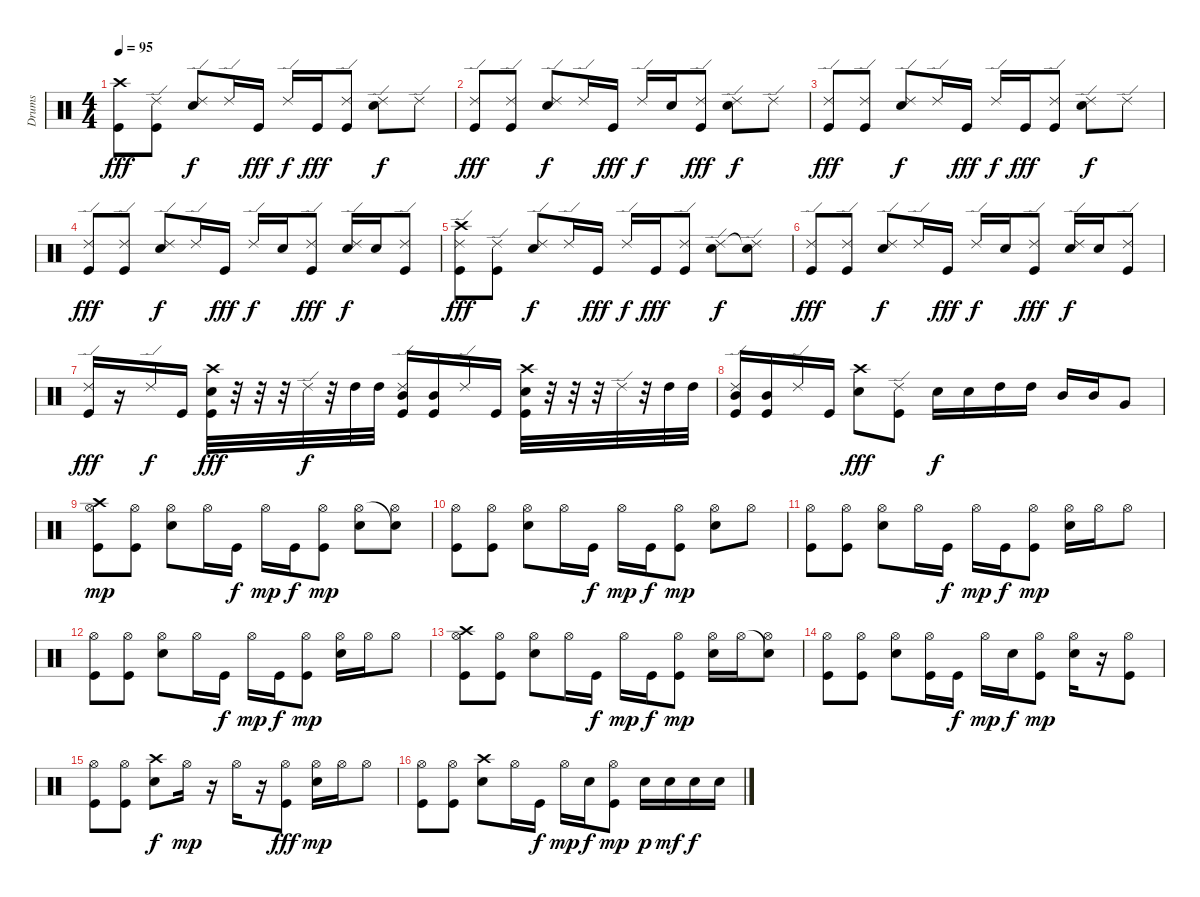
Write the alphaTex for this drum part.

\track ("Drums" "Drums") {instrument percussion}
\staff {score}
\articulation defaults
\ts (4 4)
\tempo 95
\clef neutral
\ks c
("Crash high (hit)" "Kick (hit)").8{dy fff} ("Ride (edge) 2" "Kick (hit)").8 ("Ride (edge) 2" "Electric Snare (hit)").8{dy f} "Ride (edge) 2".16 "Kick (hit)".16{dy fff} "Ride (edge) 2".16{dy f} "Kick (hit)".16{dy fff} ("Ride (edge) 2" "Kick (hit)").8 ("Ride (edge) 2" "Electric Snare (hit)").8{dy f} "Ride (edge) 2".8 |
("Ride (edge) 2" "Kick (hit)").8{dy fff} ("Ride (edge) 2" "Kick (hit)").8 ("Ride (edge) 2" "Electric Snare (hit)").8{dy f} "Ride (edge) 2".16 "Kick (hit)".16{dy fff} "Ride (edge) 2".16{dy f} "Electric Snare (hit)".16 ("Ride (edge) 2" "Kick (hit)").8{dy fff} ("Ride (edge) 2" "Electric Snare (hit)").8{dy f} "Ride (edge) 2".8 |
("Ride (edge) 2" "Kick (hit)").8{dy fff} ("Ride (edge) 2" "Kick (hit)").8 ("Ride (edge) 2" "Electric Snare (hit)").8{dy f} "Ride (edge) 2".16 "Kick (hit)".16{dy fff} "Ride (edge) 2".16{dy f} "Kick (hit)".16{dy fff} ("Ride (edge) 2" "Kick (hit)").8 ("Ride (edge) 2" "Electric Snare (hit)").8{dy f} "Ride (edge) 2".8 |
("Ride (edge) 2" "Kick (hit)").8{dy fff} ("Ride (edge) 2" "Kick (hit)").8 ("Ride (edge) 2" "Electric Snare (hit)").8{dy f} "Ride (edge) 2".16 "Kick (hit)".16{dy fff} "Ride (edge) 2".16{dy f} "Electric Snare (hit)".16 ("Ride (edge) 2" "Kick (hit)").8{dy fff} ("Ride (edge) 2" "Electric Snare (hit)").16{dy f} "Electric Snare (hit)".16 ("Ride (edge) 2" "Kick (hit)").8 |
("Crash high (hit)" "Ride (edge) 2" "Kick (hit)").8{dy fff} ("Ride (edge) 2" "Kick (hit)").8 ("Ride (edge) 2" "Electric Snare (hit)").8{dy f} "Ride (edge) 2".16 "Kick (hit)".16{dy fff} "Ride (edge) 2".16{dy f} "Kick (hit)".16{dy fff} ("Ride (edge) 2" "Kick (hit)").8 ("Ride (edge) 2" "Electric Snare (hit)").8{dy f} ("Snare (hit)"{t} "Ride (edge) 2").8 |
("Ride (edge) 2" "Kick (hit)").8{dy fff} ("Ride (edge) 2" "Kick (hit)").8 ("Ride (edge) 2" "Electric Snare (hit)").8{dy f} "Ride (edge) 2".16 "Kick (hit)".16{dy fff} "Ride (edge) 2".16{dy f} "Electric Snare (hit)".16 ("Ride (edge) 2" "Kick (hit)").8{dy fff} ("Ride (edge) 2" "Electric Snare (hit)").16{dy f} "Electric Snare (hit)".16 ("Ride (edge) 2" "Kick (hit)").8 |
("Ride (edge) 2" "Kick (hit)").16{dy fff} r.16 "Ride (edge) 2".16{dy f} "Kick (hit)".16 ("Crash high (hit)" "Electric Snare (hit)" "Kick (hit)").32{dy fff} r.32 r.32 r.32 "Ride (edge) 2".32{dy f} r.32 "High Tom (hit)".32 "High Tom (hit)".32 ("Ride (edge) 2" "Mid Tom (hit)" "Kick (hit)").16 ("Mid Tom (hit)" "Kick (hit)").16 "Ride (edge) 2".16 "Kick (hit)".16 ("Crash high (hit)" "Electric Snare (hit)" "Kick (hit)").32 r.32 r.32 r.32 "Ride (edge) 2".32 r.32 "High Tom (hit)".32 "High Tom (hit)".32 |
("Ride (edge) 2" "Mid Tom (hit)" "Kick (hit)").16 ("Mid Tom (hit)" "Kick (hit)").16 "Ride (edge) 2".16 "Kick (hit)".16 ("Crash high (hit)" "Electric Snare (hit)").8{dy fff} ("Ride (edge) 2" "Kick (hit)").8 "Electric Snare (hit)".16{dy f} "Electric Snare (hit)".16 "High Tom (hit)".16 "High Tom (hit)".16 "Mid Tom (hit)".16 "Mid Tom (hit)".16 "Very Low Tom (hit)".8 |
("Crash high (hit)" "Hi-Hat (open)" "Kick (hit)").8{dy mp} ("Hi-Hat (open)" "Kick (hit)").8 ("Hi-Hat (open)" "Electric Snare (hit)").8 "Hi-Hat (open)".16 "Kick (hit)".16{dy f} "Hi-Hat (open)".16{dy mp} "Kick (hit)".16{dy f} ("Hi-Hat (open)" "Kick (hit)").8{dy mp} ("Hi-Hat (open)" "Electric Snare (hit)").8 ("Snare (hit)"{t} "Hi-Hat (open)").8 |
("Hi-Hat (open)" "Kick (hit)").8 ("Hi-Hat (open)" "Kick (hit)").8 ("Hi-Hat (open)" "Electric Snare (hit)").8 "Hi-Hat (open)".16 "Kick (hit)".16{dy f} "Hi-Hat (open)".16{dy mp} "Kick (hit)".16{dy f} ("Hi-Hat (open)" "Kick (hit)").8{dy mp} ("Hi-Hat (open)" "Electric Snare (hit)").8 "Hi-Hat (open)".8 |
("Hi-Hat (open)" "Kick (hit)").8 ("Hi-Hat (open)" "Kick (hit)").8 ("Hi-Hat (open)" "Electric Snare (hit)").8 "Hi-Hat (open)".16 "Kick (hit)".16{dy f} "Hi-Hat (open)".16{dy mp} "Kick (hit)".16{dy f} ("Hi-Hat (open)" "Kick (hit)").8{dy mp} ("Hi-Hat (open)" "Electric Snare (hit)").16 "Hi-Hat (open)".16 "Hi-Hat (open)".8 |
("Hi-Hat (open)" "Kick (hit)").8 ("Hi-Hat (open)" "Kick (hit)").8 ("Hi-Hat (open)" "Electric Snare (hit)").8 "Hi-Hat (open)".16 "Kick (hit)".16{dy f} "Hi-Hat (open)".16{dy mp} "Kick (hit)".16{dy f} ("Hi-Hat (open)" "Kick (hit)").8{dy mp} ("Hi-Hat (open)" "Electric Snare (hit)").16 "Hi-Hat (open)".16 "Hi-Hat (open)".8 |
("Crash high (hit)" "Hi-Hat (open)" "Kick (hit)").8 ("Hi-Hat (open)" "Kick (hit)").8 ("Hi-Hat (open)" "Electric Snare (hit)").8 "Hi-Hat (open)".16 "Kick (hit)".16{dy f} "Hi-Hat (open)".16{dy mp} "Kick (hit)".16{dy f} ("Hi-Hat (open)" "Kick (hit)").8{dy mp} ("Hi-Hat (open)" "Electric Snare (hit)").16 "Hi-Hat (open)".16 ("Snare (hit)"{t} "Hi-Hat (open)").8 |
("Hi-Hat (open)" "Kick (hit)").8 ("Hi-Hat (open)" "Kick (hit)").8 ("Hi-Hat (open)" "Electric Snare (hit)").8 ("Hi-Hat (open)" "Kick (hit)").16 "Kick (hit)".16{dy f} "Hi-Hat (open)".16{dy mp} "Electric Snare (hit)".16{dy f} ("Hi-Hat (open)" "Kick (hit)").8{dy mp} ("Hi-Hat (open)" "Electric Snare (hit)").16 r.16 ("Hi-Hat (open)" "Kick (hit)").8 |
("Hi-Hat (open)" "Kick (hit)").8 ("Hi-Hat (open)" "Kick (hit)").8 ("Crash high (hit)" "Electric Snare (hit)").8{dy f} "Hi-Hat (open)".16{dy mp} r.16 "Hi-Hat (open)".16 r.16 ("Hi-Hat (open)" "Kick (hit)").8{dy fff} ("Hi-Hat (open)" "Electric Snare (hit)").16{dy mp} "Hi-Hat (open)".16 "Hi-Hat (open)".8 |
("Hi-Hat (open)" "Kick (hit)").8 ("Hi-Hat (open)" "Kick (hit)").8 ("Crash high (hit)" "Electric Snare (hit)").8 "Hi-Hat (open)".16 "Kick (hit)".16{dy f} "Hi-Hat (open)".16{dy mp} "Electric Snare (hit)".16{dy f} ("Hi-Hat (open)" "Kick (hit)").8{dy mp} "Electric Snare (hit)".16{dy p} "Electric Snare (hit)".16{dy mf} "Electric Snare (hit)".16{dy f} "Electric Snare (hit)".16
